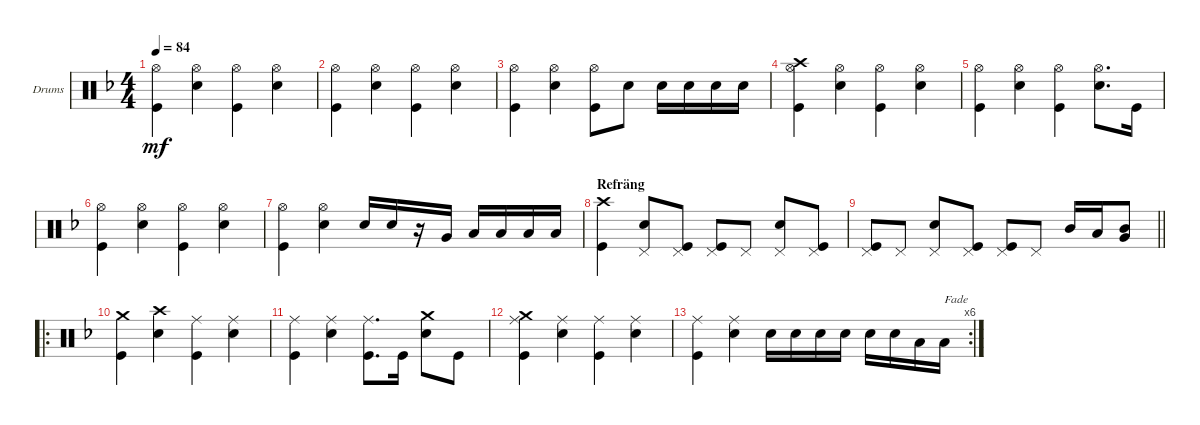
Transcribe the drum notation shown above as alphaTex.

\defaultSystemsLayout 4
\bracketExtendMode groupsimilarinstruments
\firstSystemTrackNameOrientation horizontal
\otherSystemsTrackNameOrientation horizontal
\track ("Drumkit" "Drums") {instrument percussion}
\staff {score}
\articulation defaults
\ts (4 4)
\tempo 84
\clef neutral
\ks dminor
("Kick (hit)" "Hi-Hat (open)").4{dy mf} ("Hi-Hat (open)" "Snare (hit) 2").4 ("Hi-Hat (open)" "Kick (hit)").4 ("Hi-Hat (open)" "Snare (hit) 2").4 |
("Kick (hit)" "Hi-Hat (open)").4 ("Hi-Hat (open)" "Snare (hit) 2").4 ("Hi-Hat (open)" "Kick (hit)").4 ("Hi-Hat (open)" "Snare (hit) 2").4 |
("Kick (hit)" "Hi-Hat (open)").4 ("Hi-Hat (open)" "Snare (hit) 2").4 ("Hi-Hat (open)" "Kick (hit)").8 "Snare (hit) 2".8 "Snare (hit) 2".16 "Snare (hit) 2".16 "Snare (hit) 2".16 "Snare (hit) 2".16 |
("Kick (hit)" "Hi-Hat (open)" "Crash high (hit)").4 ("Hi-Hat (open)" "Snare (hit) 2").4 ("Hi-Hat (open)" "Kick (hit)").4 ("Hi-Hat (open)" "Snare (hit) 2").4 |
("Kick (hit)" "Hi-Hat (open)").4 ("Hi-Hat (open)" "Snare (hit) 2").4 ("Hi-Hat (open)" "Kick (hit)").4 ("Hi-Hat (open)" "Snare (hit) 2").8{d} "Kick (hit)".16 |
("Kick (hit)" "Hi-Hat (open)").4 ("Hi-Hat (open)" "Snare (hit) 2").4 ("Hi-Hat (open)" "Kick (hit)").4 ("Hi-Hat (open)" "Snare (hit) 2").4 |
("Kick (hit)" "Hi-Hat (open)").4 ("Hi-Hat (open)" "Snare (hit) 2").4 "Snare (hit) 2".16 "Snare (hit) 2".16 r.16 "Very Low Tom (hit)".16 "Low Tom (hit)".16 "Low Tom (hit)".16 "Low Tom (hit)".16 "Low Tom (hit)".16 |
\section ("" "Refräng")
("Kick (hit)" "Crash high (hit)").4 ("Snare (hit) 2" "Pedal Hi-Hat (hit)").8 ("Kick (hit)" "Pedal Hi-Hat (hit)").8 ("Kick (hit)" "Pedal Hi-Hat (hit)").8 "Pedal Hi-Hat (hit)".8 ("Snare (hit) 2" "Pedal Hi-Hat (hit)").8 ("Kick (hit)" "Pedal Hi-Hat (hit)").8 |
\barLineRight lightlight
("Kick (hit)" "Pedal Hi-Hat (hit)").8 "Pedal Hi-Hat (hit)".8 ("Snare (hit) 2" "Pedal Hi-Hat (hit)").8 ("Kick (hit)" "Pedal Hi-Hat (hit)").8 ("Kick (hit)" "Pedal Hi-Hat (hit)").8 "Pedal Hi-Hat (hit)".8 "Mid Tom (hit)".16 "Low Tom (hit)".16 ("Mid Tom (hit)" "Very Low Tom (hit)").8 |
\ro
("Kick (hit)" "Crash medium (hit)").4 ("Snare (hit) 2" "Crash high (hit)").4 ("Ride (middle)" "Kick (hit)").4 ("Ride (middle)" "Snare (hit) 2").4 |
("Kick (hit)" "Ride (middle)").4 ("Ride (middle)" "Snare (hit) 2").4 ("Ride (middle)" "Kick (hit)").8{d} "Kick (hit)".16 ("Crash medium (hit)" "Snare (hit) 2").8 "Kick (hit)".8 |
("Kick (hit)" "Crash medium (hit)" "Ride (middle)").4 ("Ride (middle)" "Snare (hit) 2").4 ("Ride (middle)" "Kick (hit)").4 ("Ride (middle)" "Snare (hit) 2").4 |
\rc 6
("Kick (hit)" "Ride (middle)").4 ("Ride (middle)" "Snare (hit) 2").4 "Snare (hit) 2".16 "Snare (hit) 2".16 "Snare (hit) 2".16 "Snare (hit) 2".16 "Snare (hit) 2".16 "Snare (hit) 2".16 "Low Tom (hit)".16 "Low Tom (hit)".16{txt "Fade"}
